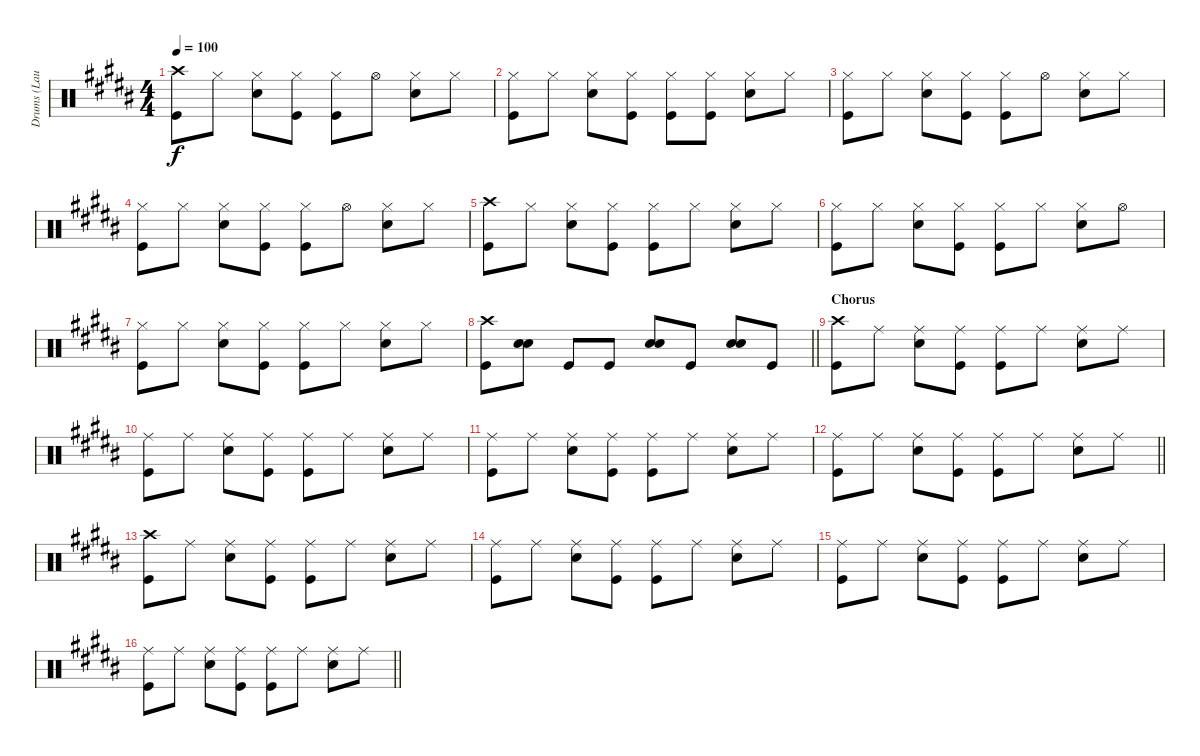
\track ("Drums (Laust Sonne)" "Drums (Lau") {instrument percussion}
\staff {score}
\articulation defaults
\ts (4 4)
\tempo 100
\clef neutral
\ks b
("Crash high (hit)" "Kick (hit)").8{dy f} "Hi-Hat (closed)".8 ("Hi-Hat (closed)" "Snare (hit) 2").8 ("Hi-Hat (closed)" "Kick (hit)").8 ("Hi-Hat (closed)" "Kick (hit)").8 "Hi-Hat (open)".8 ("Hi-Hat (closed)" "Snare (hit) 2").8 "Hi-Hat (closed)".8 |
("Hi-Hat (closed)" "Kick (hit)").8 "Hi-Hat (closed)".8 ("Hi-Hat (closed)" "Snare (hit) 2").8 ("Hi-Hat (closed)" "Kick (hit)").8 ("Hi-Hat (closed)" "Kick (hit)").8 ("Hi-Hat (closed)" "Kick (hit)").8 ("Hi-Hat (closed)" "Snare (hit) 2").8 "Hi-Hat (closed)".8 |
("Hi-Hat (closed)" "Kick (hit)").8 "Hi-Hat (closed)".8 ("Hi-Hat (closed)" "Snare (hit) 2").8 ("Hi-Hat (closed)" "Kick (hit)").8 ("Hi-Hat (closed)" "Kick (hit)").8 "Hi-Hat (open)".8 ("Hi-Hat (closed)" "Snare (hit) 2").8 "Hi-Hat (closed)".8 |
("Hi-Hat (closed)" "Kick (hit)").8 "Hi-Hat (closed)".8 ("Hi-Hat (closed)" "Snare (hit) 2").8 ("Hi-Hat (closed)" "Kick (hit)").8 ("Hi-Hat (closed)" "Kick (hit)").8 "Hi-Hat (open)".8 ("Hi-Hat (closed)" "Snare (hit) 2").8 "Hi-Hat (closed)".8 |
("Crash high (hit)" "Kick (hit)").8 "Hi-Hat (closed)".8 ("Hi-Hat (closed)" "Snare (hit) 2").8 ("Hi-Hat (closed)" "Kick (hit)").8 ("Hi-Hat (closed)" "Kick (hit)").8 "Hi-Hat (closed)".8 ("Hi-Hat (closed)" "Snare (hit) 2").8 "Hi-Hat (closed)".8 |
("Hi-Hat (closed)" "Kick (hit)").8 "Hi-Hat (closed)".8 ("Hi-Hat (closed)" "Snare (hit) 2").8 ("Hi-Hat (closed)" "Kick (hit)").8 ("Hi-Hat (closed)" "Kick (hit)").8 "Hi-Hat (closed)".8 ("Hi-Hat (closed)" "Snare (hit) 2").8 "Hi-Hat (open)".8 |
("Hi-Hat (closed)" "Kick (hit)").8 "Hi-Hat (closed)".8 ("Hi-Hat (closed)" "Snare (hit) 2").8 ("Hi-Hat (closed)" "Kick (hit)").8 ("Hi-Hat (closed)" "Kick (hit)").8 "Hi-Hat (closed)".8 ("Hi-Hat (closed)" "Snare (hit) 2").8 "Hi-Hat (closed)".8 |
\barLineRight lightlight
("Crash high (hit)" "Kick (hit)").8 ("Snare (hit) 2" "Snare (hit) 2").8 "Kick (hit)".8 "Kick (hit)".8 ("Snare (hit) 2" "Snare (hit) 2").8 "Kick (hit)".8 ("Snare (hit) 2" "Snare (hit) 2").8 "Kick (hit)".8 |
\section ("" "Chorus")
("Crash high (hit)" "Kick (hit)").8 "Ride (middle)".8 ("Ride (middle)" "Snare (hit) 2").8 ("Ride (middle)" "Kick (hit)").8 ("Ride (middle)" "Kick (hit)").8 "Ride (middle)".8 ("Ride (middle)" "Snare (hit) 2").8 "Ride (middle)".8 |
("Ride (middle)" "Kick (hit)").8 "Ride (middle)".8 ("Ride (middle)" "Snare (hit) 2").8 ("Ride (middle)" "Kick (hit)").8 ("Ride (middle)" "Kick (hit)").8 "Ride (middle)".8 ("Ride (middle)" "Snare (hit) 2").8 "Ride (middle)".8 |
("Ride (middle)" "Kick (hit)").8 "Ride (middle)".8 ("Ride (middle)" "Snare (hit) 2").8 ("Ride (middle)" "Kick (hit)").8 ("Ride (middle)" "Kick (hit)").8 "Ride (middle)".8 ("Ride (middle)" "Snare (hit) 2").8 "Ride (middle)".8 |
\barLineRight lightlight
("Ride (middle)" "Kick (hit)").8 "Ride (middle)".8 ("Ride (middle)" "Snare (hit) 2").8 ("Ride (middle)" "Kick (hit)").8 ("Ride (middle)" "Kick (hit)").8 "Ride (middle)".8 ("Ride (middle)" "Snare (hit) 2").8 "Ride (middle)".8 |
("Crash high (hit)" "Kick (hit)").8 "Ride (middle)".8 ("Ride (middle)" "Snare (hit) 2").8 ("Ride (middle)" "Kick (hit)").8 ("Ride (middle)" "Kick (hit)").8 "Ride (middle)".8 ("Ride (middle)" "Snare (hit) 2").8 "Ride (middle)".8 |
("Ride (middle)" "Kick (hit)").8 "Ride (middle)".8 ("Ride (middle)" "Snare (hit) 2").8 ("Ride (middle)" "Kick (hit)").8 ("Ride (middle)" "Kick (hit)").8 "Ride (middle)".8 ("Ride (middle)" "Snare (hit) 2").8 "Ride (middle)".8 |
("Ride (middle)" "Kick (hit)").8 "Ride (middle)".8 ("Ride (middle)" "Snare (hit) 2").8 ("Ride (middle)" "Kick (hit)").8 ("Ride (middle)" "Kick (hit)").8 "Ride (middle)".8 ("Ride (middle)" "Snare (hit) 2").8 "Ride (middle)".8 |
\barLineRight lightlight
("Ride (middle)" "Kick (hit)").8 "Ride (middle)".8 ("Ride (middle)" "Snare (hit) 2").8 ("Ride (middle)" "Kick (hit)").8 ("Ride (middle)" "Kick (hit)").8 "Ride (middle)".8 ("Ride (middle)" "Snare (hit) 2").8 "Ride (middle)".8
